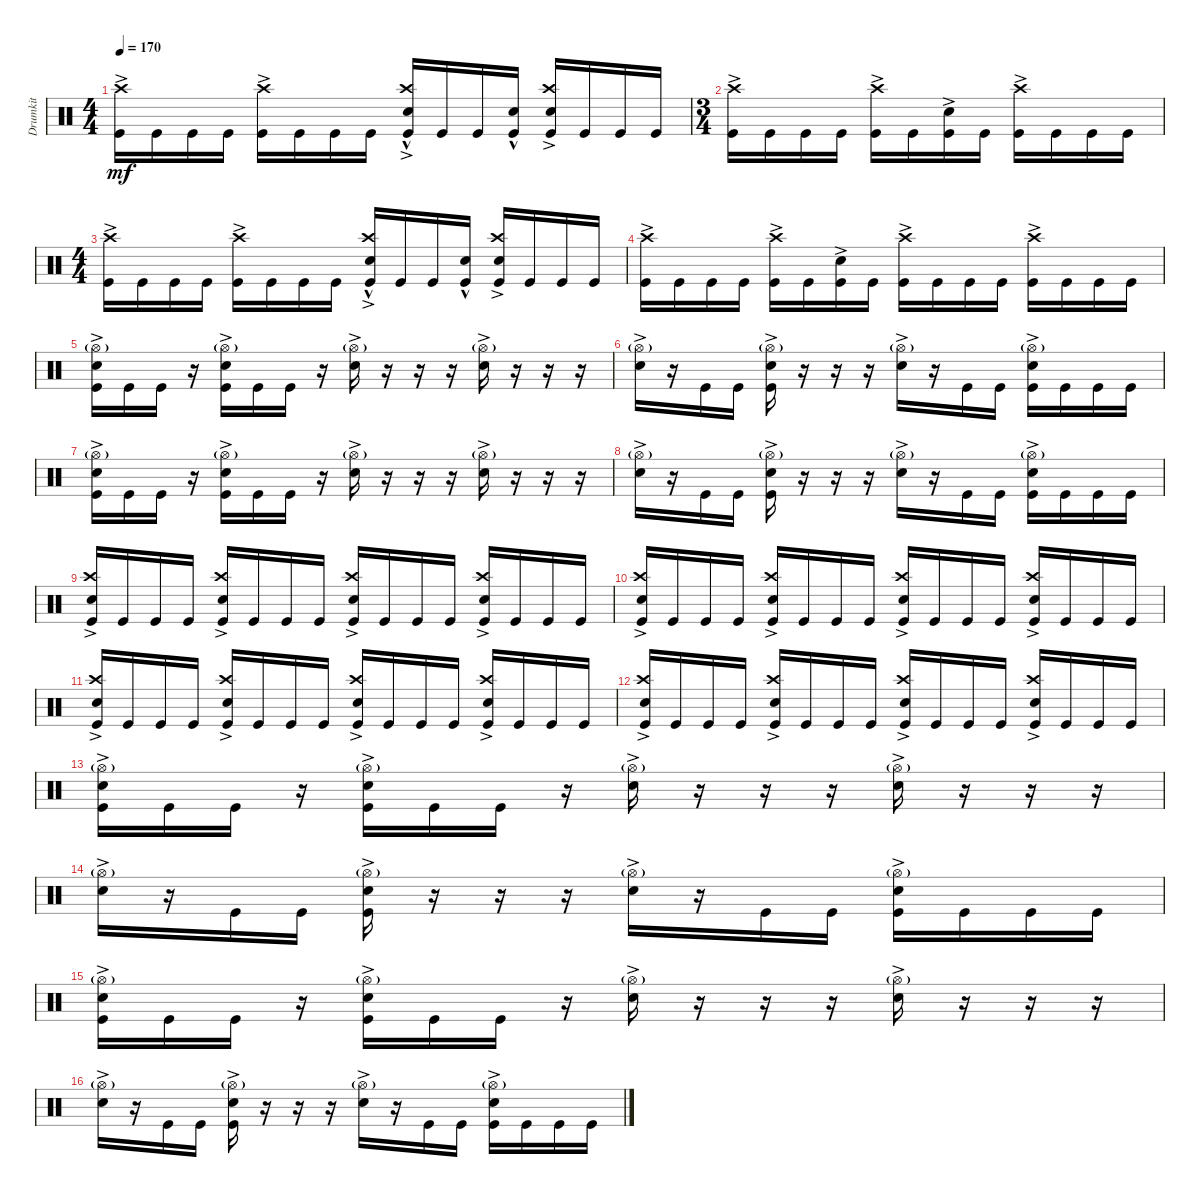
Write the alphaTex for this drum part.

\track ("Drumkit" "Drumkit") {instrument percussion}
\staff {score}
\articulation defaults
\ts (4 4)
\tempo 170
\clef neutral
\ks c
("Kick (hit)" "Crash high (hit)"{ac}).16{dy mf} "Kick (hit)".16 "Kick (hit)".16 "Kick (hit)".16 ("Kick (hit)" "Crash high (hit)"{ac}).16 "Kick (hit)".16 "Kick (hit)".16 "Kick (hit)".16 ("Kick (hit)" "Snare (hit) 2"{hac} "Crash high (hit)"{ac}).16 "Kick (hit)".16 "Kick (hit)".16 ("Kick (hit)" "Snare (hit) 2"{hac}).16 ("Kick (hit)" "Snare (hit) 2"{ac} "Crash high (hit)"{ac}).16 "Kick (hit)".16 "Kick (hit)".16 "Kick (hit)".16 |
\ts (3 4)
("Kick (hit)" "Crash high (hit)"{ac}).16 "Kick (hit)".16 "Kick (hit)".16 "Kick (hit)".16 ("Kick (hit)" "Crash high (hit)"{ac}).16 "Kick (hit)".16 ("Kick (hit)" "Snare (hit) 2"{ac}).16 "Kick (hit)".16 ("Kick (hit)" "Crash high (hit)"{ac}).16 "Kick (hit)".16 "Kick (hit)".16 "Kick (hit)".16 |
\ts (4 4)
("Kick (hit)" "Crash high (hit)"{ac}).16 "Kick (hit)".16 "Kick (hit)".16 "Kick (hit)".16 ("Kick (hit)" "Crash high (hit)"{ac}).16 "Kick (hit)".16 "Kick (hit)".16 "Kick (hit)".16 ("Kick (hit)" "Snare (hit) 2"{hac} "Crash high (hit)"{ac}).16 "Kick (hit)".16 "Kick (hit)".16 ("Kick (hit)" "Snare (hit) 2"{hac}).16 ("Kick (hit)" "Snare (hit) 2"{ac} "Crash high (hit)"{ac}).16 "Kick (hit)".16 "Kick (hit)".16 "Kick (hit)".16 |
("Kick (hit)" "Crash high (hit)"{ac}).16 "Kick (hit)".16 "Kick (hit)".16 "Kick (hit)".16 ("Kick (hit)" "Crash high (hit)"{ac}).16 "Kick (hit)".16 ("Kick (hit)" "Snare (hit) 2"{ac}).16 "Kick (hit)".16 ("Kick (hit)" "Crash high (hit)"{ac}).16 "Kick (hit)".16 "Kick (hit)".16 "Kick (hit)".16 ("Kick (hit)" "Crash high (hit)"{ac}).16 "Kick (hit)".16 "Kick (hit)".16 "Kick (hit)".16 |
("Snare (hit) 2"{ac} "Kick (hit)" "Hi-Hat (open)"{g}).16 "Kick (hit)".16 "Kick (hit)".16 r.16 ("Snare (hit) 2"{ac} "Kick (hit)" "Hi-Hat (open)"{g}).16 "Kick (hit)".16 "Kick (hit)".16 r.16 ("Snare (hit) 2"{ac} "Hi-Hat (open)"{g}).16 r.16 r.16 r.16 ("Snare (hit) 2"{ac} "Hi-Hat (open)"{g}).16 r.16 r.16 r.16 |
("Snare (hit) 2"{ac} "Hi-Hat (open)"{g}).16 r.16 "Kick (hit)".16 "Kick (hit)".16 ("Snare (hit) 2"{ac} "Kick (hit)" "Hi-Hat (open)"{g}).16 r.16 r.16 r.16 ("Snare (hit) 2"{ac} "Hi-Hat (open)"{g}).16 r.16 "Kick (hit)".16 "Kick (hit)".16 ("Snare (hit) 2"{ac} "Kick (hit)" "Hi-Hat (open)"{g}).16 "Kick (hit)".16 "Kick (hit)".16 "Kick (hit)".16 |
("Snare (hit) 2"{ac} "Kick (hit)" "Hi-Hat (open)"{g}).16 "Kick (hit)".16 "Kick (hit)".16 r.16 ("Snare (hit) 2"{ac} "Kick (hit)" "Hi-Hat (open)"{g}).16 "Kick (hit)".16 "Kick (hit)".16 r.16 ("Snare (hit) 2"{ac} "Hi-Hat (open)"{g}).16 r.16 r.16 r.16 ("Snare (hit) 2"{ac} "Hi-Hat (open)"{g}).16 r.16 r.16 r.16 |
("Snare (hit) 2"{ac} "Hi-Hat (open)"{g}).16 r.16 "Kick (hit)".16 "Kick (hit)".16 ("Snare (hit) 2"{ac} "Kick (hit)" "Hi-Hat (open)"{g}).16 r.16 r.16 r.16 ("Snare (hit) 2"{ac} "Hi-Hat (open)"{g}).16 r.16 "Kick (hit)".16 "Kick (hit)".16 ("Snare (hit) 2"{ac} "Kick (hit)" "Hi-Hat (open)"{g}).16 "Kick (hit)".16 "Kick (hit)".16 "Kick (hit)".16 |
("Snare (hit) 2"{ac} "Kick (hit)" "Crash high (hit)").16 "Kick (hit)".16 "Kick (hit)".16 "Kick (hit)".16 ("Snare (hit) 2"{ac} "Kick (hit)" "Crash high (hit)").16 "Kick (hit)".16 "Kick (hit)".16 "Kick (hit)".16 ("Snare (hit) 2"{ac} "Kick (hit)" "Crash high (hit)").16 "Kick (hit)".16 "Kick (hit)".16 "Kick (hit)".16 ("Snare (hit) 2"{ac} "Kick (hit)" "Crash high (hit)").16 "Kick (hit)".16 "Kick (hit)".16 "Kick (hit)".16 |
("Snare (hit) 2"{ac} "Kick (hit)" "Crash high (hit)").16 "Kick (hit)".16 "Kick (hit)".16 "Kick (hit)".16 ("Snare (hit) 2"{ac} "Kick (hit)" "Crash high (hit)").16 "Kick (hit)".16 "Kick (hit)".16 "Kick (hit)".16 ("Snare (hit) 2"{ac} "Kick (hit)" "Crash high (hit)").16 "Kick (hit)".16 "Kick (hit)".16 "Kick (hit)".16 ("Snare (hit) 2"{ac} "Kick (hit)" "Crash high (hit)").16 "Kick (hit)".16 "Kick (hit)".16 "Kick (hit)".16 |
("Snare (hit) 2"{ac} "Kick (hit)" "Crash high (hit)").16 "Kick (hit)".16 "Kick (hit)".16 "Kick (hit)".16 ("Snare (hit) 2"{ac} "Kick (hit)" "Crash high (hit)").16 "Kick (hit)".16 "Kick (hit)".16 "Kick (hit)".16 ("Snare (hit) 2"{ac} "Kick (hit)" "Crash high (hit)").16 "Kick (hit)".16 "Kick (hit)".16 "Kick (hit)".16 ("Snare (hit) 2"{ac} "Kick (hit)" "Crash high (hit)").16 "Kick (hit)".16 "Kick (hit)".16 "Kick (hit)".16 |
("Snare (hit) 2"{ac} "Kick (hit)" "Crash high (hit)").16 "Kick (hit)".16 "Kick (hit)".16 "Kick (hit)".16 ("Snare (hit) 2"{ac} "Kick (hit)" "Crash high (hit)").16 "Kick (hit)".16 "Kick (hit)".16 "Kick (hit)".16 ("Snare (hit) 2"{ac} "Kick (hit)" "Crash high (hit)").16 "Kick (hit)".16 "Kick (hit)".16 "Kick (hit)".16 ("Snare (hit) 2"{ac} "Kick (hit)" "Crash high (hit)").16 "Kick (hit)".16 "Kick (hit)".16 "Kick (hit)".16 |
("Snare (hit) 2"{ac} "Kick (hit)" "Hi-Hat (open)"{g}).16 "Kick (hit)".16 "Kick (hit)".16 r.16 ("Snare (hit) 2"{ac} "Kick (hit)" "Hi-Hat (open)"{g}).16 "Kick (hit)".16 "Kick (hit)".16 r.16 ("Snare (hit) 2"{ac} "Hi-Hat (open)"{g}).16 r.16 r.16 r.16 ("Snare (hit) 2"{ac} "Hi-Hat (open)"{g}).16 r.16 r.16 r.16 |
("Snare (hit) 2"{ac} "Hi-Hat (open)"{g}).16 r.16 "Kick (hit)".16 "Kick (hit)".16 ("Snare (hit) 2"{ac} "Kick (hit)" "Hi-Hat (open)"{g}).16 r.16 r.16 r.16 ("Snare (hit) 2"{ac} "Hi-Hat (open)"{g}).16 r.16 "Kick (hit)".16 "Kick (hit)".16 ("Snare (hit) 2"{ac} "Kick (hit)" "Hi-Hat (open)"{g}).16 "Kick (hit)".16 "Kick (hit)".16 "Kick (hit)".16 |
("Snare (hit) 2"{ac} "Kick (hit)" "Hi-Hat (open)"{g}).16 "Kick (hit)".16 "Kick (hit)".16 r.16 ("Snare (hit) 2"{ac} "Kick (hit)" "Hi-Hat (open)"{g}).16 "Kick (hit)".16 "Kick (hit)".16 r.16 ("Snare (hit) 2"{ac} "Hi-Hat (open)"{g}).16 r.16 r.16 r.16 ("Snare (hit) 2"{ac} "Hi-Hat (open)"{g}).16 r.16 r.16 r.16 |
("Snare (hit) 2"{ac} "Hi-Hat (open)"{g}).16 r.16 "Kick (hit)".16 "Kick (hit)".16 ("Snare (hit) 2"{ac} "Kick (hit)" "Hi-Hat (open)"{g}).16 r.16 r.16 r.16 ("Snare (hit) 2"{ac} "Hi-Hat (open)"{g}).16 r.16 "Kick (hit)".16 "Kick (hit)".16 ("Snare (hit) 2"{ac} "Kick (hit)" "Hi-Hat (open)"{g}).16 "Kick (hit)".16 "Kick (hit)".16 "Kick (hit)".16
